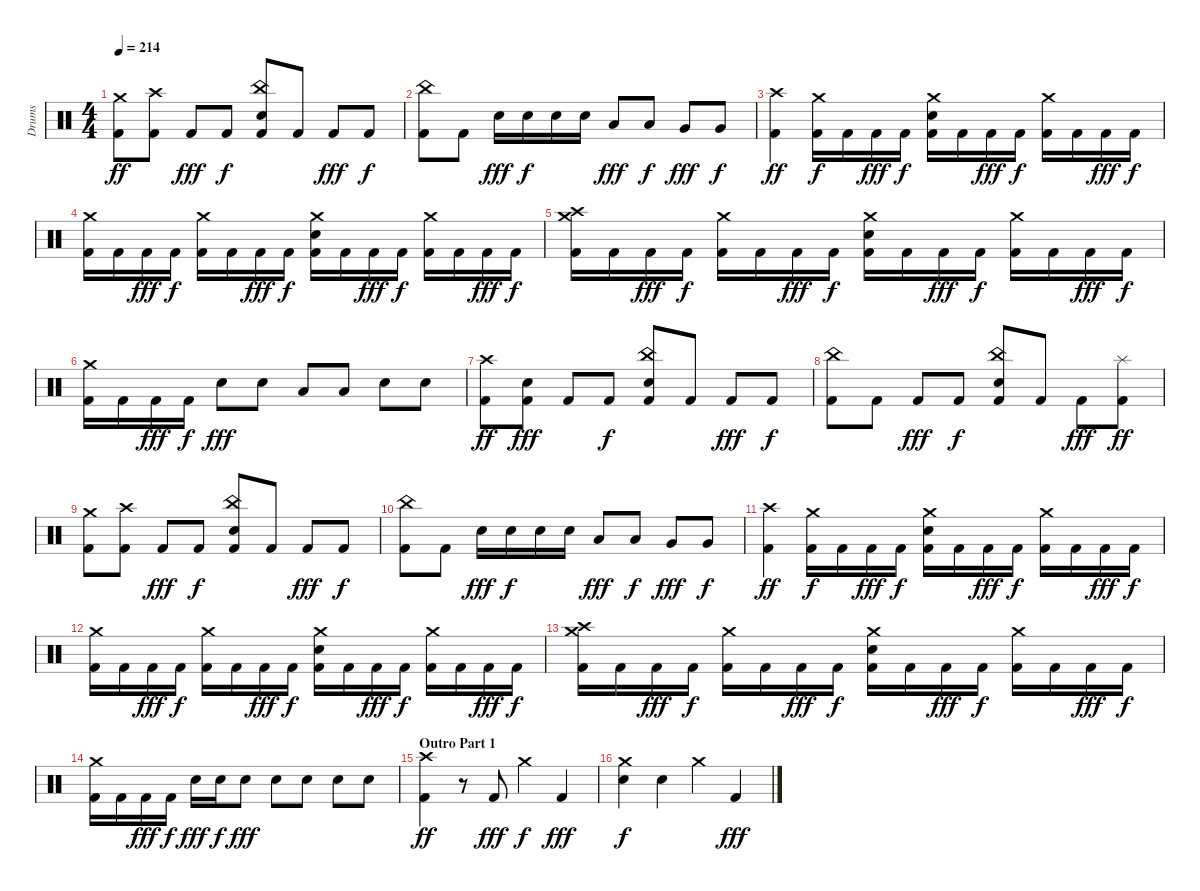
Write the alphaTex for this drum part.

\track ("Drums" "Drums") {instrument percussion}
\staff {score}
\articulation defaults
\ts (4 4)
\tempo 214
\clef neutral
\ks c
("Crash medium (hit)" "Kick (hit) 2").8{dy ff} ("Crash high (hit)" "Kick (hit) 2").8 "Kick (hit) 2".8{dy fff} "Kick (hit) 2".8{dy f} ("China (hit)" "Snare (hit) 2" "Kick (hit) 2").8 "Kick (hit) 2".8 "Kick (hit) 2".8{dy fff} "Kick (hit) 2".8{dy f} |
("China (hit)" "Kick (hit) 2").8 "Kick (hit) 2".8 "Snare (hit) 2".16{dy fff} "Snare (hit) 2".16{dy f} "Snare (hit) 2".16 "Snare (hit) 2".16 "Low Tom (hit)".8{dy fff} "Low Tom (hit)".8{dy f} "Very Low Tom (hit)".8{dy fff} "Very Low Tom (hit)".8{dy f} |
("Crash high (hit)" "Kick (hit) 2").4{dy ff} ("Crash medium (hit)" "Kick (hit) 2").16{dy f} "Kick (hit) 2".16 "Kick (hit) 2".16{dy fff} "Kick (hit) 2".16{dy f} ("Crash medium (hit)" "Snare (hit) 2" "Kick (hit) 2").16 "Kick (hit) 2".16 "Kick (hit) 2".16{dy fff} "Kick (hit) 2".16{dy f} ("Crash medium (hit)" "Kick (hit) 2").16 "Kick (hit) 2".16 "Kick (hit) 2".16{dy fff} "Kick (hit) 2".16{dy f} |
("Crash medium (hit)" "Kick (hit) 2").16 "Kick (hit) 2".16 "Kick (hit) 2".16{dy fff} "Kick (hit) 2".16{dy f} ("Crash medium (hit)" "Kick (hit) 2").16 "Kick (hit) 2".16 "Kick (hit) 2".16{dy fff} "Kick (hit) 2".16{dy f} ("Crash medium (hit)" "Snare (hit) 2" "Kick (hit) 2").16 "Kick (hit) 2".16 "Kick (hit) 2".16{dy fff} "Kick (hit) 2".16{dy f} ("Crash medium (hit)" "Kick (hit) 2").16 "Kick (hit) 2".16 "Kick (hit) 2".16{dy fff} "Kick (hit) 2".16{dy f} |
("Crash medium (hit)" "Crash high (hit)" "Kick (hit) 2").16 "Kick (hit) 2".16 "Kick (hit) 2".16{dy fff} "Kick (hit) 2".16{dy f} ("Crash medium (hit)" "Kick (hit) 2").16 "Kick (hit) 2".16 "Kick (hit) 2".16{dy fff} "Kick (hit) 2".16{dy f} ("Crash medium (hit)" "Snare (hit) 2" "Kick (hit) 2").16 "Kick (hit) 2".16 "Kick (hit) 2".16{dy fff} "Kick (hit) 2".16{dy f} ("Crash medium (hit)" "Kick (hit) 2").16 "Kick (hit) 2".16 "Kick (hit) 2".16{dy fff} "Kick (hit) 2".16{dy f} |
("Crash medium (hit)" "Kick (hit) 2").16 "Kick (hit) 2".16 "Kick (hit) 2".16{dy fff} "Kick (hit) 2".16{dy f} "Snare (hit) 2".8{dy fff} "Snare (hit) 2".8 "Low Tom (hit)".8 "Low Tom (hit)".8 "Snare (hit) 2".8 "Snare (hit) 2".8 |
("Crash high (hit)" "Kick (hit) 2").8{dy ff} ("Snare (hit) 2" "Kick (hit) 2").8{dy fff} "Kick (hit) 2".8 "Kick (hit) 2".8{dy f} ("China (hit)" "Snare (hit) 2" "Kick (hit) 2").8 "Kick (hit) 2".8 "Kick (hit) 2".8{dy fff} "Kick (hit) 2".8{dy f} |
("China (hit)" "Kick (hit) 2").8 "Kick (hit) 2".8 "Kick (hit) 2".8{dy fff} "Kick (hit) 2".8{dy f} ("China (hit)" "Snare (hit) 2" "Kick (hit) 2").8 "Kick (hit) 2".8 "Kick (hit) 2".8{dy fff} ("Splash (hit)" "Kick (hit) 2").8{dy ff} |
("Crash medium (hit)" "Kick (hit) 2").8 ("Crash high (hit)" "Kick (hit) 2").8 "Kick (hit) 2".8{dy fff} "Kick (hit) 2".8{dy f} ("China (hit)" "Snare (hit) 2" "Kick (hit) 2").8 "Kick (hit) 2".8 "Kick (hit) 2".8{dy fff} "Kick (hit) 2".8{dy f} |
("China (hit)" "Kick (hit) 2").8 "Kick (hit) 2".8 "Snare (hit) 2".16{dy fff} "Snare (hit) 2".16{dy f} "Snare (hit) 2".16 "Snare (hit) 2".16 "Low Tom (hit)".8{dy fff} "Low Tom (hit)".8{dy f} "Very Low Tom (hit)".8{dy fff} "Very Low Tom (hit)".8{dy f} |
("Crash high (hit)" "Kick (hit) 2").4{dy ff} ("Crash medium (hit)" "Kick (hit) 2").16{dy f} "Kick (hit) 2".16 "Kick (hit) 2".16{dy fff} "Kick (hit) 2".16{dy f} ("Crash medium (hit)" "Snare (hit) 2" "Kick (hit) 2").16 "Kick (hit) 2".16 "Kick (hit) 2".16{dy fff} "Kick (hit) 2".16{dy f} ("Crash medium (hit)" "Kick (hit) 2").16 "Kick (hit) 2".16 "Kick (hit) 2".16{dy fff} "Kick (hit) 2".16{dy f} |
("Crash medium (hit)" "Kick (hit) 2").16 "Kick (hit) 2".16 "Kick (hit) 2".16{dy fff} "Kick (hit) 2".16{dy f} ("Crash medium (hit)" "Kick (hit) 2").16 "Kick (hit) 2".16 "Kick (hit) 2".16{dy fff} "Kick (hit) 2".16{dy f} ("Crash medium (hit)" "Snare (hit) 2" "Kick (hit) 2").16 "Kick (hit) 2".16 "Kick (hit) 2".16{dy fff} "Kick (hit) 2".16{dy f} ("Crash medium (hit)" "Kick (hit) 2").16 "Kick (hit) 2".16 "Kick (hit) 2".16{dy fff} "Kick (hit) 2".16{dy f} |
("Crash medium (hit)" "Crash high (hit)" "Kick (hit) 2").16 "Kick (hit) 2".16 "Kick (hit) 2".16{dy fff} "Kick (hit) 2".16{dy f} ("Crash medium (hit)" "Kick (hit) 2").16 "Kick (hit) 2".16 "Kick (hit) 2".16{dy fff} "Kick (hit) 2".16{dy f} ("Crash medium (hit)" "Snare (hit) 2" "Kick (hit) 2").16 "Kick (hit) 2".16 "Kick (hit) 2".16{dy fff} "Kick (hit) 2".16{dy f} ("Crash medium (hit)" "Kick (hit) 2").16 "Kick (hit) 2".16 "Kick (hit) 2".16{dy fff} "Kick (hit) 2".16{dy f} |
("Crash medium (hit)" "Kick (hit) 2").16 "Kick (hit) 2".16 "Kick (hit) 2".16{dy fff} "Kick (hit) 2".16{dy f} "Snare (hit) 2".16{dy fff} "Snare (hit) 2".16{dy f} "Snare (hit) 2".8{dy fff} "Snare (hit) 2".8 "Snare (hit) 2".8 "Snare (hit) 2".8 "Snare (hit) 2".8 |
\section ("" "Outro Part 1")
("Crash high (hit)" "Kick (hit) 2").4{dy ff} r.8 "Kick (hit) 2".8{dy fff} "Crash medium (hit)".4{dy f} "Kick (hit) 2".4{dy fff} |
("Crash medium (hit)" "Snare (hit) 2").4{dy f} "Snare (hit) 2".4 "Crash medium (hit)".4 "Kick (hit) 2".4{dy fff}
